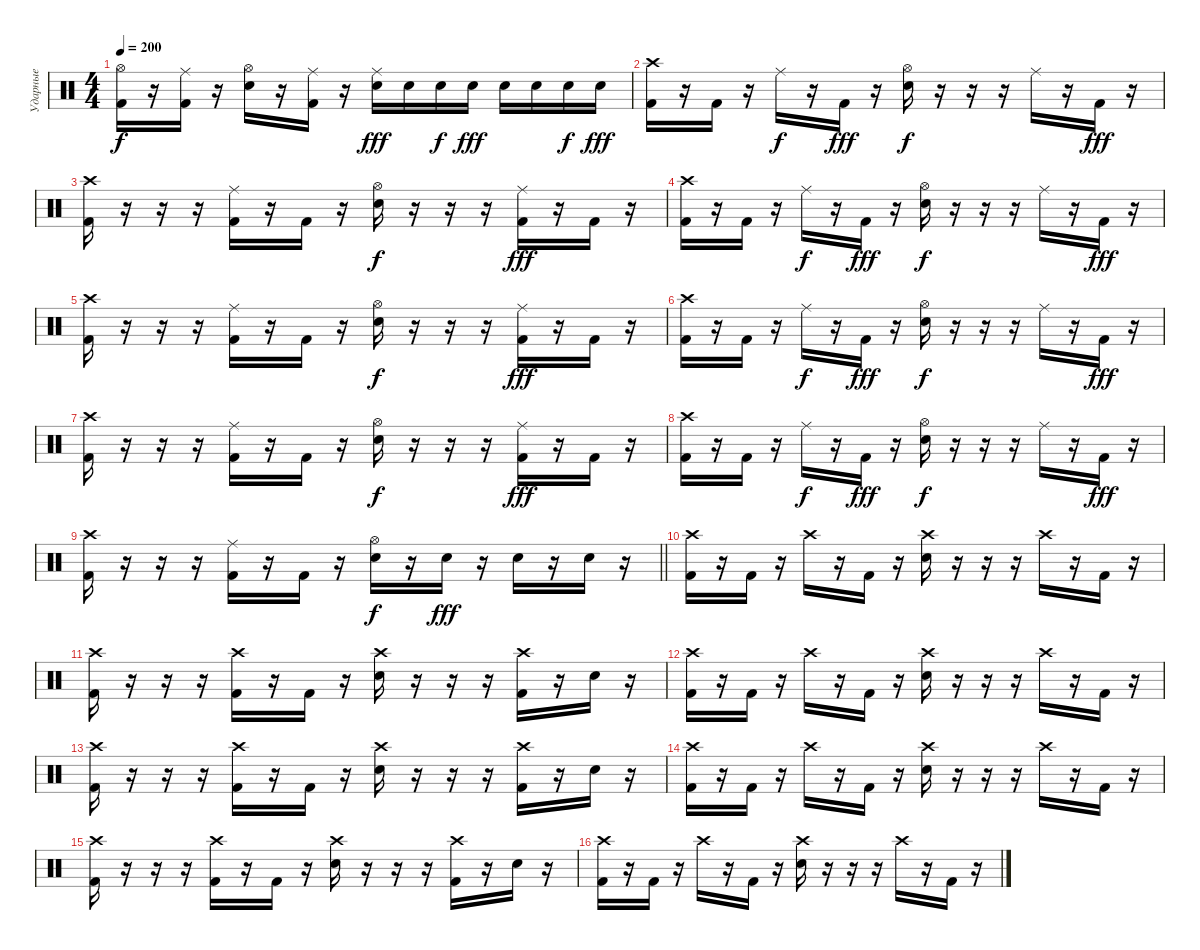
\track ("Ударные" "Ударные") {instrument percussion}
\staff {score}
\articulation defaults
\ts (4 4)
\tempo 200
\clef neutral
\ks c
("Hi-Hat (open)" "Kick (hit) 2").16{dy f} r.16 ("Ride (middle)" "Kick (hit) 2").16 r.16 ("Hi-Hat (open)" "Electric Snare (hit)").16 r.16 ("Ride (middle)" "Kick (hit) 2").16 r.16 ("Ride (middle)" "Electric Snare (hit)").16{dy fff} "Electric Snare (hit)".16 "Electric Snare (hit)".16{dy f} "Electric Snare (hit)".16{dy fff} "Electric Snare (hit)".16 "Electric Snare (hit)".16 "Electric Snare (hit)".16{dy f} "Electric Snare (hit)".16{dy fff} |
("Crash high (hit)" "Kick (hit) 2").16 r.16 "Kick (hit) 2".16 r.16 "Ride (middle)".16{dy f} r.16 "Kick (hit) 2".16{dy fff} r.16 ("Hi-Hat (open)" "Electric Snare (hit)").16{dy f} r.16 r.16 r.16 "Ride (middle)".16 r.16 "Kick (hit) 2".16{dy fff} r.16 |
("Crash high (hit)" "Kick (hit) 2").16 r.16 r.16 r.16 ("Ride (middle)" "Kick (hit) 2").16 r.16 "Kick (hit) 2".16 r.16 ("Hi-Hat (open)" "Electric Snare (hit)").16{dy f} r.16 r.16 r.16 ("Ride (middle)" "Kick (hit) 2").16{dy fff} r.16 "Kick (hit) 2".16 r.16 |
("Crash high (hit)" "Kick (hit) 2").16 r.16 "Kick (hit) 2".16 r.16 "Ride (middle)".16{dy f} r.16 "Kick (hit) 2".16{dy fff} r.16 ("Hi-Hat (open)" "Electric Snare (hit)").16{dy f} r.16 r.16 r.16 "Ride (middle)".16 r.16 "Kick (hit) 2".16{dy fff} r.16 |
("Crash high (hit)" "Kick (hit) 2").16 r.16 r.16 r.16 ("Ride (middle)" "Kick (hit) 2").16 r.16 "Kick (hit) 2".16 r.16 ("Hi-Hat (open)" "Electric Snare (hit)").16{dy f} r.16 r.16 r.16 ("Ride (middle)" "Kick (hit) 2").16{dy fff} r.16 "Kick (hit) 2".16 r.16 |
("Crash high (hit)" "Kick (hit) 2").16 r.16 "Kick (hit) 2".16 r.16 "Ride (middle)".16{dy f} r.16 "Kick (hit) 2".16{dy fff} r.16 ("Hi-Hat (open)" "Electric Snare (hit)").16{dy f} r.16 r.16 r.16 "Ride (middle)".16 r.16 "Kick (hit) 2".16{dy fff} r.16 |
("Crash high (hit)" "Kick (hit) 2").16 r.16 r.16 r.16 ("Ride (middle)" "Kick (hit) 2").16 r.16 "Kick (hit) 2".16 r.16 ("Hi-Hat (open)" "Electric Snare (hit)").16{dy f} r.16 r.16 r.16 ("Ride (middle)" "Kick (hit) 2").16{dy fff} r.16 "Kick (hit) 2".16 r.16 |
("Crash high (hit)" "Kick (hit) 2").16 r.16 "Kick (hit) 2".16 r.16 "Ride (middle)".16{dy f} r.16 "Kick (hit) 2".16{dy fff} r.16 ("Hi-Hat (open)" "Electric Snare (hit)").16{dy f} r.16 r.16 r.16 "Ride (middle)".16 r.16 "Kick (hit) 2".16{dy fff} r.16 |
\barLineRight lightlight
("Crash high (hit)" "Kick (hit) 2").16 r.16 r.16 r.16 ("Ride (middle)" "Kick (hit) 2").16 r.16 "Kick (hit) 2".16 r.16 ("Hi-Hat (open)" "Electric Snare (hit)").16{dy f} r.16 "Electric Snare (hit)".16{dy fff} r.16 "Electric Snare (hit)".16 r.16 "Electric Snare (hit)".16 r.16 |
("Crash high (hit)" "Kick (hit) 2").16 r.16 "Kick (hit) 2".16 r.16 "Crash high (hit)".16 r.16 "Kick (hit) 2".16 r.16 ("Crash high (hit)" "Electric Snare (hit)").16 r.16 r.16 r.16 "Crash high (hit)".16 r.16 "Kick (hit) 2".16 r.16 |
("Crash high (hit)" "Kick (hit) 2").16 r.16 r.16 r.16 ("Crash high (hit)" "Kick (hit) 2").16 r.16 "Kick (hit) 2".16 r.16 ("Crash high (hit)" "Electric Snare (hit)").16 r.16 r.16 r.16 ("Crash high (hit)" "Kick (hit) 2").16 r.16 "Electric Snare (hit)".16 r.16 |
("Crash high (hit)" "Kick (hit) 2").16 r.16 "Kick (hit) 2".16 r.16 "Crash high (hit)".16 r.16 "Kick (hit) 2".16 r.16 ("Crash high (hit)" "Electric Snare (hit)").16 r.16 r.16 r.16 "Crash high (hit)".16 r.16 "Kick (hit) 2".16 r.16 |
("Crash high (hit)" "Kick (hit) 2").16 r.16 r.16 r.16 ("Crash high (hit)" "Kick (hit) 2").16 r.16 "Kick (hit) 2".16 r.16 ("Crash high (hit)" "Electric Snare (hit)").16 r.16 r.16 r.16 ("Crash high (hit)" "Kick (hit) 2").16 r.16 "Electric Snare (hit)".16 r.16 |
("Crash high (hit)" "Kick (hit) 2").16 r.16 "Kick (hit) 2".16 r.16 "Crash high (hit)".16 r.16 "Kick (hit) 2".16 r.16 ("Crash high (hit)" "Electric Snare (hit)").16 r.16 r.16 r.16 "Crash high (hit)".16 r.16 "Kick (hit) 2".16 r.16 |
("Crash high (hit)" "Kick (hit) 2").16 r.16 r.16 r.16 ("Crash high (hit)" "Kick (hit) 2").16 r.16 "Kick (hit) 2".16 r.16 ("Crash high (hit)" "Electric Snare (hit)").16 r.16 r.16 r.16 ("Crash high (hit)" "Kick (hit) 2").16 r.16 "Electric Snare (hit)".16 r.16 |
("Crash high (hit)" "Kick (hit) 2").16 r.16 "Kick (hit) 2".16 r.16 "Crash high (hit)".16 r.16 "Kick (hit) 2".16 r.16 ("Crash high (hit)" "Electric Snare (hit)").16 r.16 r.16 r.16 "Crash high (hit)".16 r.16 "Kick (hit) 2".16 r.16
